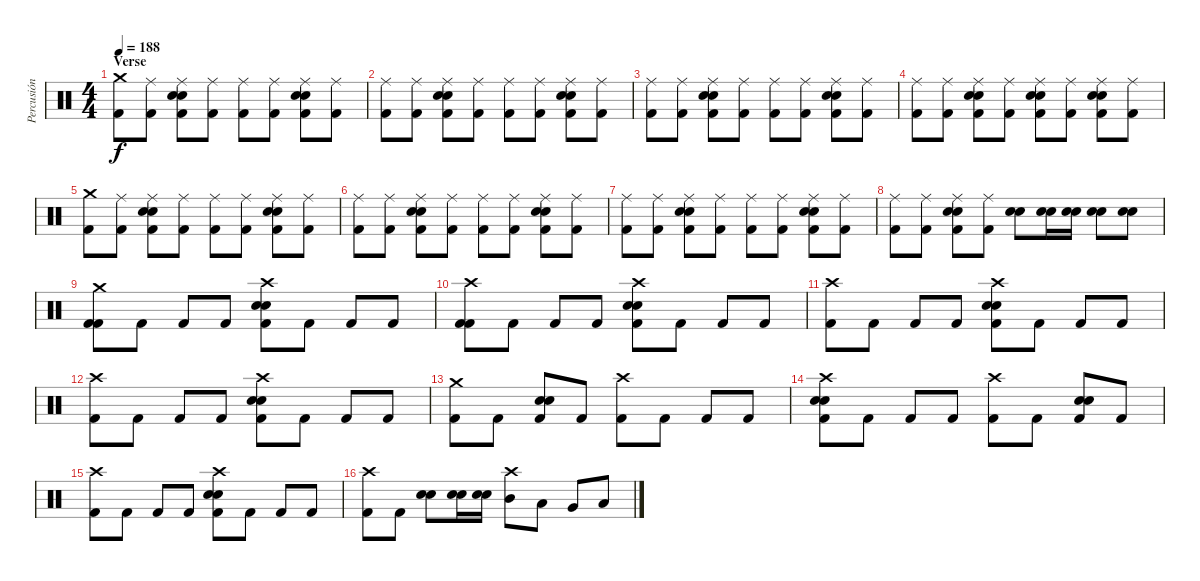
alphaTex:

\track ("Percusión" "Percusión") {instrument percussion}
\staff {score}
\articulation defaults
\ts (4 4)
\section ("" "Verse")
\tempo 188
\clef neutral
\ks c
("Crash medium (hit)" "Kick (hit) 2").8{dy f} ("Ride (middle)" "Kick (hit) 2").8 ("Ride (middle)" "Electric Snare (hit)" "Snare (hit) 2" "Kick (hit) 2").8 ("Ride (middle)" "Kick (hit) 2").8 ("Ride (middle)" "Kick (hit) 2").8 ("Ride (middle)" "Kick (hit) 2").8 ("Ride (middle)" "Electric Snare (hit)" "Snare (hit) 2" "Kick (hit) 2").8 ("Ride (middle)" "Kick (hit) 2").8 |
("Ride (middle)" "Kick (hit) 2").8 ("Ride (middle)" "Kick (hit) 2").8 ("Ride (middle)" "Electric Snare (hit)" "Snare (hit) 2" "Kick (hit) 2").8 ("Ride (middle)" "Kick (hit) 2").8 ("Ride (middle)" "Kick (hit) 2").8 ("Ride (middle)" "Kick (hit) 2").8 ("Ride (middle)" "Electric Snare (hit)" "Snare (hit) 2" "Kick (hit) 2").8 ("Ride (middle)" "Kick (hit) 2").8 |
("Ride (middle)" "Kick (hit) 2").8 ("Ride (middle)" "Kick (hit) 2").8 ("Ride (middle)" "Electric Snare (hit)" "Snare (hit) 2" "Kick (hit) 2").8 ("Ride (middle)" "Kick (hit) 2").8 ("Ride (middle)" "Kick (hit) 2").8 ("Ride (middle)" "Kick (hit) 2").8 ("Ride (middle)" "Electric Snare (hit)" "Snare (hit) 2" "Kick (hit) 2").8 ("Ride (middle)" "Kick (hit) 2").8 |
("Ride (middle)" "Kick (hit) 2").8 ("Ride (middle)" "Kick (hit) 2").8 ("Ride (middle)" "Electric Snare (hit)" "Snare (hit) 2" "Kick (hit) 2").8 ("Ride (middle)" "Kick (hit) 2").8 ("Ride (middle)" "Electric Snare (hit)" "Snare (hit) 2" "Kick (hit) 2").8 ("Ride (middle)" "Kick (hit) 2").8 ("Ride (middle)" "Electric Snare (hit)" "Snare (hit) 2" "Kick (hit) 2").8 ("Ride (middle)" "Kick (hit) 2").8 |
("Crash medium (hit)" "Kick (hit) 2").8 ("Ride (middle)" "Kick (hit) 2").8 ("Ride (middle)" "Electric Snare (hit)" "Snare (hit) 2" "Kick (hit) 2").8 ("Ride (middle)" "Kick (hit) 2").8 ("Ride (middle)" "Kick (hit) 2").8 ("Ride (middle)" "Kick (hit) 2").8 ("Ride (middle)" "Electric Snare (hit)" "Snare (hit) 2" "Kick (hit) 2").8 ("Ride (middle)" "Kick (hit) 2").8 |
("Ride (middle)" "Kick (hit) 2").8 ("Ride (middle)" "Kick (hit) 2").8 ("Ride (middle)" "Electric Snare (hit)" "Snare (hit) 2" "Kick (hit) 2").8 ("Ride (middle)" "Kick (hit) 2").8 ("Ride (middle)" "Kick (hit) 2").8 ("Ride (middle)" "Kick (hit) 2").8 ("Ride (middle)" "Electric Snare (hit)" "Snare (hit) 2" "Kick (hit) 2").8 ("Ride (middle)" "Kick (hit) 2").8 |
("Ride (middle)" "Kick (hit) 2").8 ("Ride (middle)" "Kick (hit) 2").8 ("Ride (middle)" "Electric Snare (hit)" "Snare (hit) 2" "Kick (hit) 2").8 ("Ride (middle)" "Kick (hit) 2").8 ("Ride (middle)" "Kick (hit) 2").8 ("Ride (middle)" "Kick (hit) 2").8 ("Ride (middle)" "Electric Snare (hit)" "Snare (hit) 2" "Kick (hit) 2").8 ("Ride (middle)" "Kick (hit) 2").8 |
("Ride (middle)" "Kick (hit) 2").8 ("Ride (middle)" "Kick (hit) 2").8 ("Ride (middle)" "Electric Snare (hit)" "Snare (hit) 2" "Kick (hit) 2").8 ("Ride (middle)" "Kick (hit) 2").8 ("Electric Snare (hit)" "Snare (hit) 2").8 ("Electric Snare (hit)" "Snare (hit) 2").16 ("Electric Snare (hit)" "Snare (hit) 2").16 ("Electric Snare (hit)" "Snare (hit) 2").8 ("Electric Snare (hit)" "Snare (hit) 2").8 |
("Crash medium (hit)" "Kick (hit) 2" "Kick (hit) 2").8 "Kick (hit) 2".8 "Kick (hit) 2".8 "Kick (hit) 2".8 ("Crash high (hit)" "Electric Snare (hit)" "Snare (hit) 2" "Kick (hit) 2").8 "Kick (hit) 2".8 "Kick (hit) 2".8 "Kick (hit) 2".8 |
("Crash high (hit)" "Kick (hit) 2" "Kick (hit) 2").8 "Kick (hit) 2".8 "Kick (hit) 2".8 "Kick (hit) 2".8 ("Crash high (hit)" "Electric Snare (hit)" "Snare (hit) 2" "Kick (hit) 2").8 "Kick (hit) 2".8 "Kick (hit) 2".8 "Kick (hit) 2".8 |
("Crash high (hit)" "Kick (hit) 2").8 "Kick (hit) 2".8 "Kick (hit) 2".8 "Kick (hit) 2".8 ("Crash high (hit)" "Electric Snare (hit)" "Snare (hit) 2" "Kick (hit) 2").8 "Kick (hit) 2".8 "Kick (hit) 2".8 "Kick (hit) 2".8 |
("Crash high (hit)" "Kick (hit) 2").8 "Kick (hit) 2".8 "Kick (hit) 2".8 "Kick (hit) 2".8 ("Crash high (hit)" "Electric Snare (hit)" "Snare (hit) 2" "Kick (hit) 2").8 "Kick (hit) 2".8 "Kick (hit) 2".8 "Kick (hit) 2".8 |
("Crash medium (hit)" "Kick (hit) 2").8 "Kick (hit) 2".8 ("Electric Snare (hit)" "Snare (hit) 2" "Kick (hit) 2").8 "Kick (hit) 2".8 ("Crash high (hit)" "Kick (hit) 2").8 "Kick (hit) 2".8 "Kick (hit) 2".8 "Kick (hit) 2".8 |
("Crash high (hit)" "Electric Snare (hit)" "Snare (hit) 2" "Kick (hit) 2").8 "Kick (hit) 2".8 "Kick (hit) 2".8 "Kick (hit) 2".8 ("Crash high (hit)" "Kick (hit) 2").8 "Kick (hit) 2".8 ("Electric Snare (hit)" "Snare (hit) 2" "Kick (hit) 2").8 "Kick (hit) 2".8 |
("Crash high (hit)" "Kick (hit) 2").8 "Kick (hit) 2".8 "Kick (hit) 2".8 "Kick (hit) 2".8 ("Crash high (hit)" "Electric Snare (hit)" "Snare (hit) 2" "Kick (hit) 2").8 "Kick (hit) 2".8 "Kick (hit) 2".8 "Kick (hit) 2".8 |
("Crash high (hit)" "Kick (hit) 2").8 "Kick (hit) 2".8 ("Electric Snare (hit)" "Snare (hit) 2").8 ("Electric Snare (hit)" "Snare (hit) 2").16 ("Electric Snare (hit)" "Snare (hit) 2").16 ("Crash high (hit)" "Mid Tom (hit)").8 "Low Tom (hit)".8 "Very Low Tom (hit)".8 "Low Floor Tom (hit)".8
